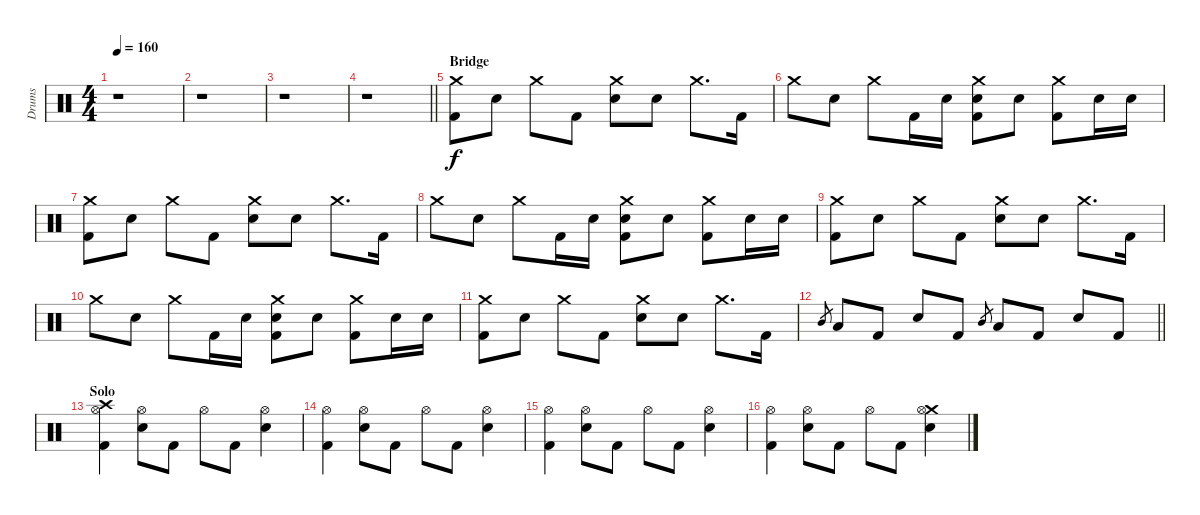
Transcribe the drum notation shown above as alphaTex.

\track ("Drums" "Drums") {instrument percussion}
\staff {score}
\articulation defaults
\ts (4 4)
\tempo 160
\clef neutral
\ks c
r.1{dy f} |
r.1 |
r.1 |
\barLineRight lightlight
r.1 |
\section ("" "Bridge")
("Crash medium (hit)" "Kick (hit) 2").8 "Electric Snare (hit)".8 "Crash medium (hit)".8 "Kick (hit) 2".8 ("Crash medium (hit)" "Electric Snare (hit)").8 "Electric Snare (hit)".8 "Crash medium (hit)".8{d} "Kick (hit) 2".16 |
"Crash medium (hit)".8 "Electric Snare (hit)".8 "Crash medium (hit)".8 "Kick (hit) 2".16 "Electric Snare (hit)".16 ("Crash medium (hit)" "Electric Snare (hit)" "Kick (hit) 2").8 "Electric Snare (hit)".8 ("Crash medium (hit)" "Kick (hit) 2").8 "Electric Snare (hit)".16 "Electric Snare (hit)".16 |
("Crash medium (hit)" "Kick (hit) 2").8 "Electric Snare (hit)".8 "Crash medium (hit)".8 "Kick (hit) 2".8 ("Crash medium (hit)" "Electric Snare (hit)").8 "Electric Snare (hit)".8 "Crash medium (hit)".8{d} "Kick (hit) 2".16 |
"Crash medium (hit)".8 "Electric Snare (hit)".8 "Crash medium (hit)".8 "Kick (hit) 2".16 "Electric Snare (hit)".16 ("Crash medium (hit)" "Electric Snare (hit)" "Kick (hit) 2").8 "Electric Snare (hit)".8 ("Crash medium (hit)" "Kick (hit) 2").8 "Electric Snare (hit)".16 "Electric Snare (hit)".16 |
("Crash medium (hit)" "Kick (hit) 2").8 "Electric Snare (hit)".8 "Crash medium (hit)".8 "Kick (hit) 2".8 ("Crash medium (hit)" "Electric Snare (hit)").8 "Electric Snare (hit)".8 "Crash medium (hit)".8{d} "Kick (hit) 2".16 |
"Crash medium (hit)".8 "Electric Snare (hit)".8 "Crash medium (hit)".8 "Kick (hit) 2".16 "Electric Snare (hit)".16 ("Crash medium (hit)" "Electric Snare (hit)" "Kick (hit) 2").8 "Electric Snare (hit)".8 ("Crash medium (hit)" "Kick (hit) 2").8 "Electric Snare (hit)".16 "Electric Snare (hit)".16 |
("Crash medium (hit)" "Kick (hit) 2").8 "Electric Snare (hit)".8 "Crash medium (hit)".8 "Kick (hit) 2".8 ("Crash medium (hit)" "Electric Snare (hit)").8 "Electric Snare (hit)".8 "Crash medium (hit)".8{d} "Kick (hit) 2".16 |
\barLineRight lightlight "Mid Tom (hit)".8{gr} "Low Tom (hit)".8 "Kick (hit) 2".8 "Electric Snare (hit)".8 "Kick (hit) 2".8 "Mid Tom (hit)".8{gr} "Low Tom (hit)".8 "Kick (hit) 2".8 "Electric Snare (hit)".8 "Kick (hit) 2".8
|
\section ("" "Solo")
("Crash high (hit)" "Hi-Hat (open)" "Kick (hit) 2").4 ("Hi-Hat (open)" "Electric Snare (hit)").8 "Kick (hit) 2".8 "Hi-Hat (open)".8 "Kick (hit) 2".8 ("Hi-Hat (open)" "Electric Snare (hit)").4 |
("Hi-Hat (open)" "Kick (hit) 2").4 ("Hi-Hat (open)" "Electric Snare (hit)").8 "Kick (hit) 2".8 "Hi-Hat (open)".8 "Kick (hit) 2".8 ("Hi-Hat (open)" "Electric Snare (hit)").4 |
("Hi-Hat (open)" "Kick (hit) 2").4 ("Hi-Hat (open)" "Electric Snare (hit)").8 "Kick (hit) 2".8 "Hi-Hat (open)".8 "Kick (hit) 2".8 ("Hi-Hat (open)" "Electric Snare (hit)").4 |
("Hi-Hat (open)" "Kick (hit) 2").4 ("Hi-Hat (open)" "Electric Snare (hit)").8 "Kick (hit) 2".8 "Hi-Hat (open)".8 "Kick (hit) 2".8 ("Crash medium (hit)" "Hi-Hat (open)" "Electric Snare (hit)").4
